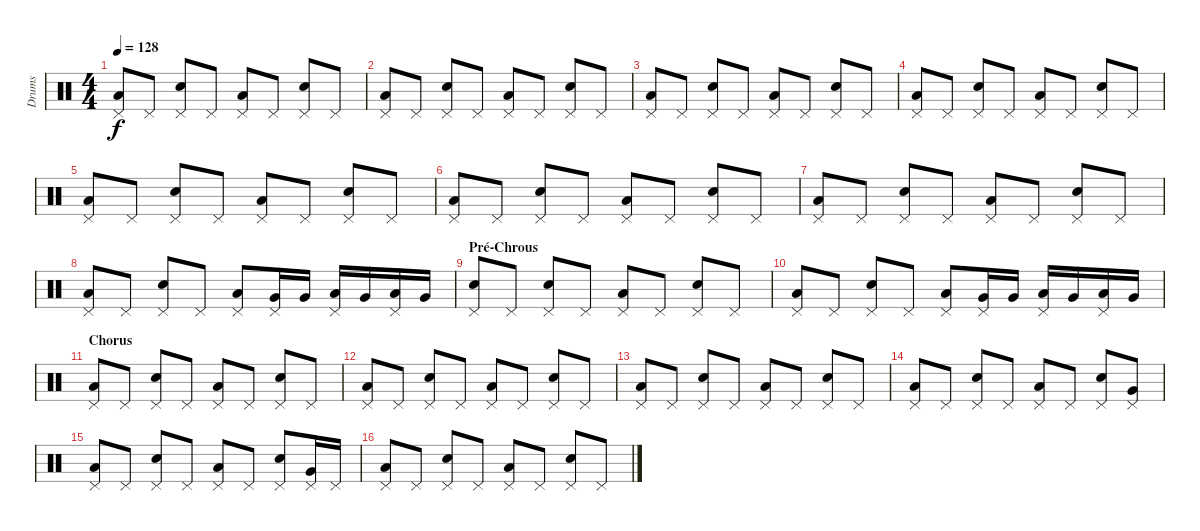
\track ("Drums" "Drums") {instrument percussion}
\staff {score}
\articulation defaults
\ts (4 4)
\tempo 128
\clef neutral
\ks c
("Pedal Hi-Hat (hit)" "Low Floor Tom (hit)").8{dy f} "Pedal Hi-Hat (hit)".8 ("Pedal Hi-Hat (hit)" "Electric Snare (hit)").8 "Pedal Hi-Hat (hit)".8 ("Pedal Hi-Hat (hit)" "Low Floor Tom (hit)").8 "Pedal Hi-Hat (hit)".8 ("Pedal Hi-Hat (hit)" "Electric Snare (hit)").8 "Pedal Hi-Hat (hit)".8 |
("Pedal Hi-Hat (hit)" "Low Floor Tom (hit)").8 "Pedal Hi-Hat (hit)".8 ("Pedal Hi-Hat (hit)" "Electric Snare (hit)").8 "Pedal Hi-Hat (hit)".8 ("Pedal Hi-Hat (hit)" "Low Floor Tom (hit)").8 "Pedal Hi-Hat (hit)".8 ("Pedal Hi-Hat (hit)" "Electric Snare (hit)").8 "Pedal Hi-Hat (hit)".8 |
("Pedal Hi-Hat (hit)" "Low Floor Tom (hit)").8 "Pedal Hi-Hat (hit)".8 ("Pedal Hi-Hat (hit)" "Electric Snare (hit)").8 "Pedal Hi-Hat (hit)".8 ("Pedal Hi-Hat (hit)" "Low Floor Tom (hit)").8 "Pedal Hi-Hat (hit)".8 ("Pedal Hi-Hat (hit)" "Electric Snare (hit)").8 "Pedal Hi-Hat (hit)".8 |
("Pedal Hi-Hat (hit)" "Low Floor Tom (hit)").8 "Pedal Hi-Hat (hit)".8 ("Pedal Hi-Hat (hit)" "Electric Snare (hit)").8 "Pedal Hi-Hat (hit)".8 ("Pedal Hi-Hat (hit)" "Low Floor Tom (hit)").8 "Pedal Hi-Hat (hit)".8 ("Pedal Hi-Hat (hit)" "Electric Snare (hit)").8 "Pedal Hi-Hat (hit)".8 |
("Pedal Hi-Hat (hit)" "Low Floor Tom (hit)").8 "Pedal Hi-Hat (hit)".8 ("Pedal Hi-Hat (hit)" "Electric Snare (hit)").8 "Pedal Hi-Hat (hit)".8 ("Pedal Hi-Hat (hit)" "Low Floor Tom (hit)").8 "Pedal Hi-Hat (hit)".8 ("Pedal Hi-Hat (hit)" "Electric Snare (hit)").8 "Pedal Hi-Hat (hit)".8 |
("Pedal Hi-Hat (hit)" "Low Floor Tom (hit)").8 "Pedal Hi-Hat (hit)".8 ("Pedal Hi-Hat (hit)" "Electric Snare (hit)").8 "Pedal Hi-Hat (hit)".8 ("Pedal Hi-Hat (hit)" "Low Floor Tom (hit)").8 "Pedal Hi-Hat (hit)".8 ("Pedal Hi-Hat (hit)" "Electric Snare (hit)").8 "Pedal Hi-Hat (hit)".8 |
("Pedal Hi-Hat (hit)" "Low Floor Tom (hit)").8 "Pedal Hi-Hat (hit)".8 ("Pedal Hi-Hat (hit)" "Electric Snare (hit)").8 "Pedal Hi-Hat (hit)".8 ("Pedal Hi-Hat (hit)" "Low Floor Tom (hit)").8 "Pedal Hi-Hat (hit)".8 ("Pedal Hi-Hat (hit)" "Electric Snare (hit)").8 "Pedal Hi-Hat (hit)".8 |
("Pedal Hi-Hat (hit)" "Low Floor Tom (hit)").8 "Pedal Hi-Hat (hit)".8 ("Pedal Hi-Hat (hit)" "Electric Snare (hit)").8 "Pedal Hi-Hat (hit)".8 ("Pedal Hi-Hat (hit)" "Low Floor Tom (hit)").8 ("Pedal Hi-Hat (hit)" "Very Low Tom (hit)").16 "Very Low Tom (hit)".16 ("Pedal Hi-Hat (hit)" "Low Floor Tom (hit)").16 "Very Low Tom (hit)".16 ("Pedal Hi-Hat (hit)" "Low Floor Tom (hit)").16 "Very Low Tom (hit)".16 |
\section ("" "Pré-Chrous")
("Pedal Hi-Hat (hit)" "Electric Snare (hit)").8 "Pedal Hi-Hat (hit)".8 ("Pedal Hi-Hat (hit)" "Electric Snare (hit)").8 "Pedal Hi-Hat (hit)".8 ("Pedal Hi-Hat (hit)" "Low Floor Tom (hit)").8 "Pedal Hi-Hat (hit)".8 ("Pedal Hi-Hat (hit)" "Electric Snare (hit)").8 "Pedal Hi-Hat (hit)".8 |
("Pedal Hi-Hat (hit)" "Low Floor Tom (hit)").8 "Pedal Hi-Hat (hit)".8 ("Pedal Hi-Hat (hit)" "Electric Snare (hit)").8 "Pedal Hi-Hat (hit)".8 ("Pedal Hi-Hat (hit)" "Low Floor Tom (hit)").8 ("Pedal Hi-Hat (hit)" "Very Low Tom (hit)").16 "Very Low Tom (hit)".16 ("Pedal Hi-Hat (hit)" "Low Floor Tom (hit)").16 "Very Low Tom (hit)".16 ("Pedal Hi-Hat (hit)" "Low Floor Tom (hit)").16 "Very Low Tom (hit)".16 |
\section ("" "Chorus")
("Pedal Hi-Hat (hit)" "Low Floor Tom (hit)").8 "Pedal Hi-Hat (hit)".8 ("Pedal Hi-Hat (hit)" "Electric Snare (hit)").8 "Pedal Hi-Hat (hit)".8 ("Pedal Hi-Hat (hit)" "Low Floor Tom (hit)").8 "Pedal Hi-Hat (hit)".8 ("Pedal Hi-Hat (hit)" "Electric Snare (hit)").8 "Pedal Hi-Hat (hit)".8 |
("Pedal Hi-Hat (hit)" "Low Floor Tom (hit)").8 "Pedal Hi-Hat (hit)".8 ("Pedal Hi-Hat (hit)" "Electric Snare (hit)").8 "Pedal Hi-Hat (hit)".8 ("Pedal Hi-Hat (hit)" "Low Floor Tom (hit)").8 "Pedal Hi-Hat (hit)".8 ("Pedal Hi-Hat (hit)" "Electric Snare (hit)").8 "Pedal Hi-Hat (hit)".8 |
("Pedal Hi-Hat (hit)" "Low Floor Tom (hit)").8 "Pedal Hi-Hat (hit)".8 ("Pedal Hi-Hat (hit)" "Electric Snare (hit)").8 "Pedal Hi-Hat (hit)".8 ("Pedal Hi-Hat (hit)" "Low Floor Tom (hit)").8 "Pedal Hi-Hat (hit)".8 ("Pedal Hi-Hat (hit)" "Electric Snare (hit)").8 "Pedal Hi-Hat (hit)".8 |
("Pedal Hi-Hat (hit)" "Low Floor Tom (hit)").8 "Pedal Hi-Hat (hit)".8 ("Pedal Hi-Hat (hit)" "Electric Snare (hit)").8 "Pedal Hi-Hat (hit)".8 ("Pedal Hi-Hat (hit)" "Low Floor Tom (hit)").8 "Pedal Hi-Hat (hit)".8 ("Pedal Hi-Hat (hit)" "Electric Snare (hit)").8 ("Pedal Hi-Hat (hit)" "Very Low Tom (hit)").8 |
("Pedal Hi-Hat (hit)" "Low Floor Tom (hit)").8 "Pedal Hi-Hat (hit)".8 ("Pedal Hi-Hat (hit)" "Electric Snare (hit)").8 "Pedal Hi-Hat (hit)".8 ("Pedal Hi-Hat (hit)" "Low Floor Tom (hit)").8 "Pedal Hi-Hat (hit)".8 ("Pedal Hi-Hat (hit)" "Electric Snare (hit)").8 ("Pedal Hi-Hat (hit)" "Very Low Tom (hit)").16 "Pedal Hi-Hat (hit)".16 |
("Pedal Hi-Hat (hit)" "Low Floor Tom (hit)").8 "Pedal Hi-Hat (hit)".8 ("Pedal Hi-Hat (hit)" "Electric Snare (hit)").8 "Pedal Hi-Hat (hit)".8 ("Pedal Hi-Hat (hit)" "Low Floor Tom (hit)").8 "Pedal Hi-Hat (hit)".8 ("Pedal Hi-Hat (hit)" "Electric Snare (hit)").8 "Pedal Hi-Hat (hit)".8
